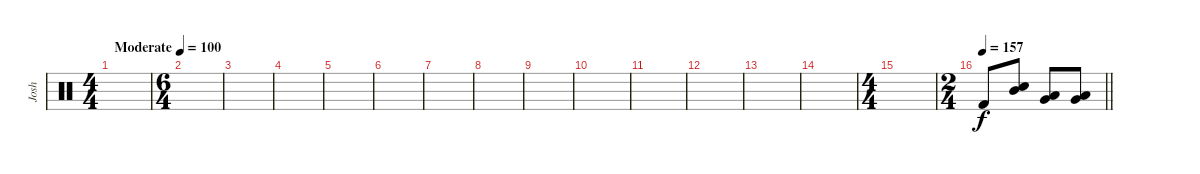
\track ("Josh" "Josh") {instrument percussion}
\staff {score}
\articulation defaults
\ts (4 4)
\tempo (100 "Moderate")
\clef neutral
\ks c
|
\ts (6 4)
|
|
|
|
|
|
|
|
|
|
|
|
|
\ts (4 4)
|
\ts (2 4)
\tempo 157
\barLineRight lightlight "Kick (hit) 2".8
("Mid Tom (hit)" "Electric Snare (hit)").8 ("Very Low Tom (hit)" "Low Tom (hit)").8 ("Low Floor Tom (hit)" "Very Low Tom (hit)").8
